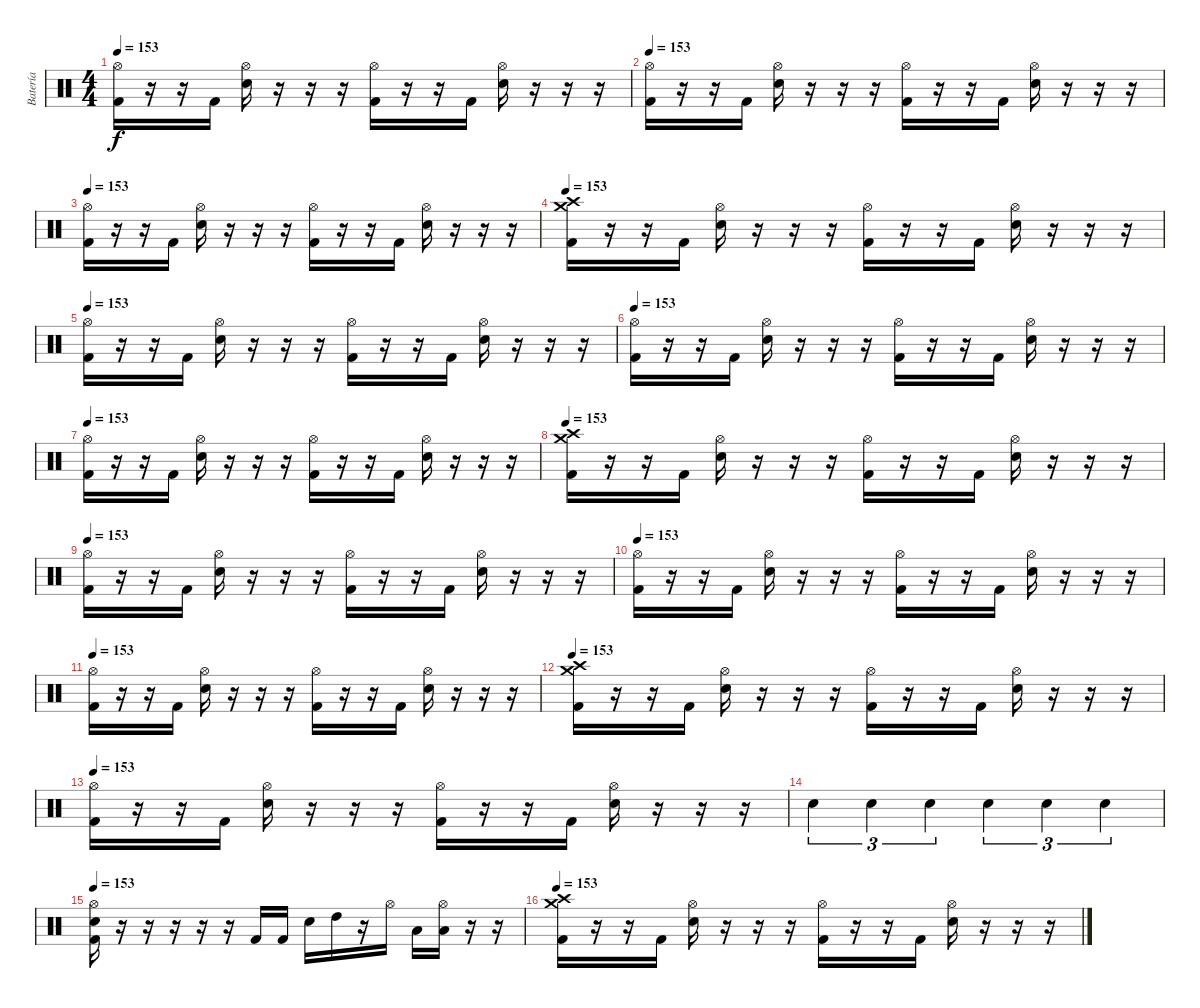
\track ("Batería" "Batería") {instrument percussion}
\staff {score}
\articulation defaults
\ts (4 4)
\tempo 153
\clef neutral
\ks c
("Hi-Hat (open)" "Kick (hit) 2").16{dy f} r.16 r.16 "Kick (hit) 2".16 ("Hi-Hat (open)" "Snare (hit) 2").16 r.16 r.16 r.16 ("Hi-Hat (open)" "Kick (hit) 2").16 r.16 r.16 "Kick (hit) 2".16 ("Hi-Hat (open)" "Snare (hit) 2").16 r.16 r.16 r.16 |
\tempo 153
("Hi-Hat (open)" "Kick (hit) 2").16 r.16 r.16 "Kick (hit) 2".16 ("Hi-Hat (open)" "Snare (hit) 2").16 r.16 r.16 r.16 ("Hi-Hat (open)" "Kick (hit) 2").16 r.16 r.16 "Kick (hit) 2".16 ("Hi-Hat (open)" "Snare (hit) 2").16 r.16 r.16 r.16 |
\tempo 153
("Hi-Hat (open)" "Kick (hit) 2").16 r.16 r.16 "Kick (hit) 2".16 ("Hi-Hat (open)" "Snare (hit) 2").16 r.16 r.16 r.16 ("Hi-Hat (open)" "Kick (hit) 2").16 r.16 r.16 "Kick (hit) 2".16 ("Hi-Hat (open)" "Snare (hit) 2").16 r.16 r.16 r.16 |
\tempo 153
("Crash medium (hit)" "Crash high (hit)" "Kick (hit) 2").16 r.16 r.16 "Kick (hit) 2".16 ("Hi-Hat (open)" "Snare (hit) 2").16 r.16 r.16 r.16 ("Hi-Hat (open)" "Kick (hit) 2").16 r.16 r.16 "Kick (hit) 2".16 ("Hi-Hat (open)" "Snare (hit) 2").16 r.16 r.16 r.16 |
\tempo 153
("Hi-Hat (open)" "Kick (hit) 2").16 r.16 r.16 "Kick (hit) 2".16 ("Hi-Hat (open)" "Snare (hit) 2").16 r.16 r.16 r.16 ("Hi-Hat (open)" "Kick (hit) 2").16 r.16 r.16 "Kick (hit) 2".16 ("Hi-Hat (open)" "Snare (hit) 2").16 r.16 r.16 r.16 |
\tempo 153
("Hi-Hat (open)" "Kick (hit) 2").16 r.16 r.16 "Kick (hit) 2".16 ("Hi-Hat (open)" "Snare (hit) 2").16 r.16 r.16 r.16 ("Hi-Hat (open)" "Kick (hit) 2").16 r.16 r.16 "Kick (hit) 2".16 ("Hi-Hat (open)" "Snare (hit) 2").16 r.16 r.16 r.16 |
\tempo 153
("Hi-Hat (open)" "Kick (hit) 2").16 r.16 r.16 "Kick (hit) 2".16 ("Hi-Hat (open)" "Snare (hit) 2").16 r.16 r.16 r.16 ("Hi-Hat (open)" "Kick (hit) 2").16 r.16 r.16 "Kick (hit) 2".16 ("Hi-Hat (open)" "Snare (hit) 2").16 r.16 r.16 r.16 |
\tempo 153
("Crash medium (hit)" "Crash high (hit)" "Kick (hit) 2").16 r.16 r.16 "Kick (hit) 2".16 ("Hi-Hat (open)" "Snare (hit) 2").16 r.16 r.16 r.16 ("Hi-Hat (open)" "Kick (hit) 2").16 r.16 r.16 "Kick (hit) 2".16 ("Hi-Hat (open)" "Snare (hit) 2").16 r.16 r.16 r.16 |
\tempo 153
("Hi-Hat (open)" "Kick (hit) 2").16 r.16 r.16 "Kick (hit) 2".16 ("Hi-Hat (open)" "Snare (hit) 2").16 r.16 r.16 r.16 ("Hi-Hat (open)" "Kick (hit) 2").16 r.16 r.16 "Kick (hit) 2".16 ("Hi-Hat (open)" "Snare (hit) 2").16 r.16 r.16 r.16 |
\tempo 153
("Hi-Hat (open)" "Kick (hit) 2").16 r.16 r.16 "Kick (hit) 2".16 ("Hi-Hat (open)" "Snare (hit) 2").16 r.16 r.16 r.16 ("Hi-Hat (open)" "Kick (hit) 2").16 r.16 r.16 "Kick (hit) 2".16 ("Hi-Hat (open)" "Snare (hit) 2").16 r.16 r.16 r.16 |
\tempo 153
("Hi-Hat (open)" "Kick (hit) 2").16 r.16 r.16 "Kick (hit) 2".16 ("Hi-Hat (open)" "Snare (hit) 2").16 r.16 r.16 r.16 ("Hi-Hat (open)" "Kick (hit) 2").16 r.16 r.16 "Kick (hit) 2".16 ("Hi-Hat (open)" "Snare (hit) 2").16 r.16 r.16 r.16 |
\tempo 153
("Crash medium (hit)" "Crash high (hit)" "Kick (hit) 2").16 r.16 r.16 "Kick (hit) 2".16 ("Hi-Hat (open)" "Snare (hit) 2").16 r.16 r.16 r.16 ("Hi-Hat (open)" "Kick (hit) 2").16 r.16 r.16 "Kick (hit) 2".16 ("Hi-Hat (open)" "Snare (hit) 2").16 r.16 r.16 r.16 |
\tempo 153
("Hi-Hat (open)" "Kick (hit) 2").16 r.16 r.16 "Kick (hit) 2".16 ("Hi-Hat (open)" "Snare (hit) 2").16 r.16 r.16 r.16 ("Hi-Hat (open)" "Kick (hit) 2").16 r.16 r.16 "Kick (hit) 2".16 ("Hi-Hat (open)" "Snare (hit) 2").16 r.16 r.16 r.16 |
"Snare (hit) 2".4{tu (3 2)} "Snare (hit) 2".4{tu (3 2)} "Snare (hit) 2".4{tu (3 2)} "Snare (hit) 2".4{tu (3 2)} "Snare (hit) 2".4{tu (3 2)} "Snare (hit) 2".4{tu (3 2)} |
\tempo 153
("Hi-Hat (open)" "Kick (hit) 2" "Snare (hit) 2").16 r.16 r.16 r.16 r.16 r.16 "Kick (hit) 2".16 "Kick (hit) 2".16 "Snare (hit) 2".16 "High Tom (hit)".16 r.16 "Hi-Hat (open)".16 "Low Tom (hit)".16 ("Hi-Hat (open)" "Low Tom (hit)").16 r.16 r.16 |
\tempo 153
("Crash medium (hit)" "Crash high (hit)" "Kick (hit) 2").16 r.16 r.16 "Kick (hit) 2".16 ("Hi-Hat (open)" "Snare (hit) 2").16 r.16 r.16 r.16 ("Hi-Hat (open)" "Kick (hit) 2").16 r.16 r.16 "Kick (hit) 2".16 ("Hi-Hat (open)" "Snare (hit) 2").16 r.16 r.16 r.16
